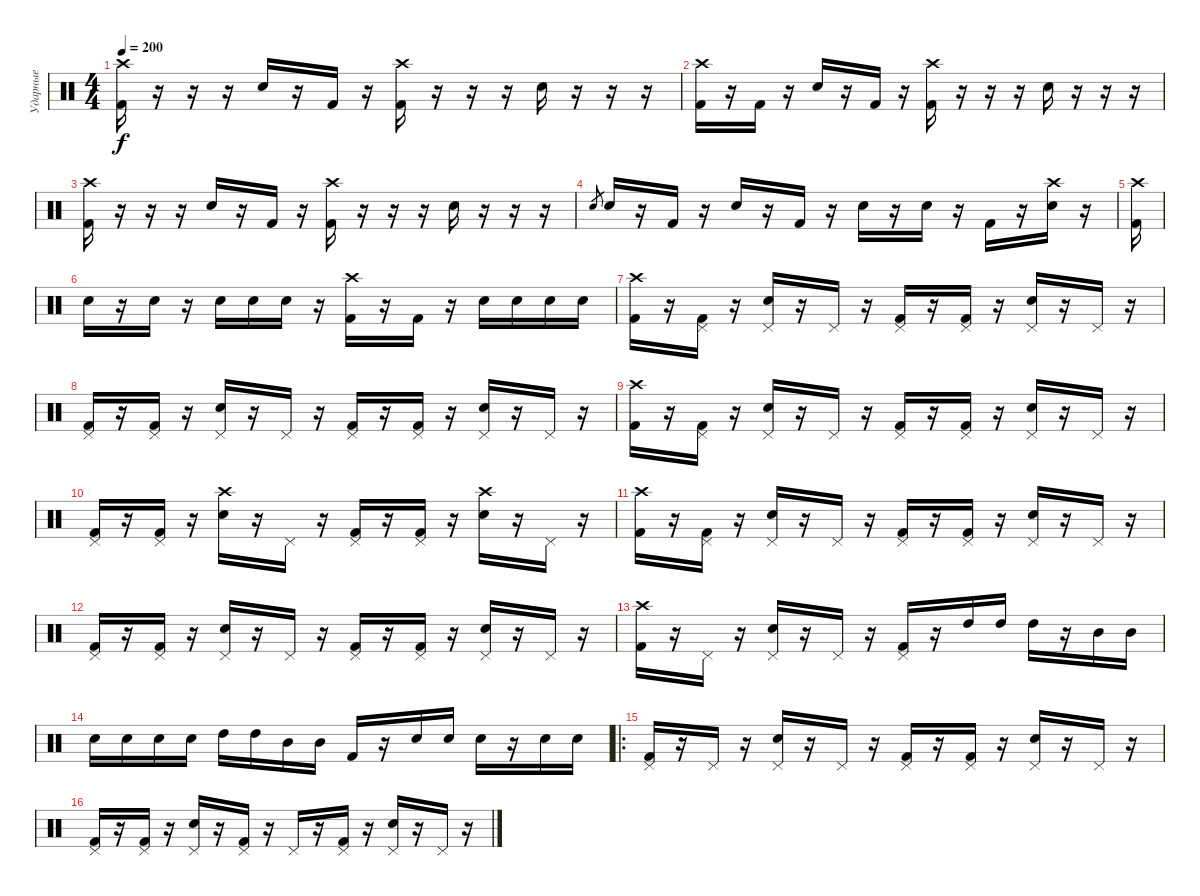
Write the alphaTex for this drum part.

\track ("Ударные" "Ударные") {solo instrument percussion}
\staff {score}
\articulation defaults
\ts (4 4)
\tempo 200
\clef neutral
\ks c
("Crash high (hit)" "Kick (hit) 2").16{dy f} r.16 r.16 r.16 "Electric Snare (hit)".16 r.16 "Kick (hit) 2".16 r.16 ("Crash high (hit)" "Kick (hit) 2").16 r.16 r.16 r.16 "Electric Snare (hit)".16 r.16 r.16 r.16 |
("Crash high (hit)" "Kick (hit) 2").16 r.16 "Kick (hit) 2".16 r.16 "Electric Snare (hit)".16 r.16 "Kick (hit) 2".16 r.16 ("Crash high (hit)" "Kick (hit) 2").16 r.16 r.16 r.16 "Electric Snare (hit)".16 r.16 r.16 r.16 |
("Crash high (hit)" "Kick (hit) 2").16 r.16 r.16 r.16 "Electric Snare (hit)".16 r.16 "Kick (hit) 2".16 r.16 ("Crash high (hit)" "Kick (hit) 2").16 r.16 r.16 r.16 "Electric Snare (hit)".16 r.16 r.16 r.16 |
"Electric Snare (hit)".8{gr} "Electric Snare (hit)".16 r.16 "Kick (hit) 2".16 r.16 "Electric Snare (hit)".16 r.16 "Kick (hit) 2".16 r.16 "Electric Snare (hit)".16 r.16 "Electric Snare (hit)".16 r.16 "Kick (hit) 2".16 r.16 ("Crash high (hit)" "Electric Snare (hit)").16 r.16 |
("Crash high (hit)" "Kick (hit) 2").16 |
"Electric Snare (hit)".16 r.16 "Electric Snare (hit)".16 r.16 "Electric Snare (hit)".16 "Electric Snare (hit)".16 "Electric Snare (hit)".16 r.16 ("Crash high (hit)" "Kick (hit) 2").16 r.16 "Kick (hit) 2".16 r.16 "Electric Snare (hit)".16 "Electric Snare (hit)".16 "Electric Snare (hit)".16 "Electric Snare (hit)".16 |
("Crash high (hit)" "Kick (hit) 2").16 r.16 ("Pedal Hi-Hat (hit)" "Kick (hit) 2").16 r.16 ("Pedal Hi-Hat (hit)" "Electric Snare (hit)").16 r.16 "Pedal Hi-Hat (hit)".16 r.16 ("Pedal Hi-Hat (hit)" "Kick (hit) 2").16 r.16 ("Pedal Hi-Hat (hit)" "Kick (hit) 2").16 r.16 ("Pedal Hi-Hat (hit)" "Electric Snare (hit)").16 r.16 "Pedal Hi-Hat (hit)".16 r.16 |
("Pedal Hi-Hat (hit)" "Kick (hit) 2").16 r.16 ("Pedal Hi-Hat (hit)" "Kick (hit) 2").16 r.16 ("Pedal Hi-Hat (hit)" "Electric Snare (hit)").16 r.16 "Pedal Hi-Hat (hit)".16 r.16 ("Pedal Hi-Hat (hit)" "Kick (hit) 2").16 r.16 ("Pedal Hi-Hat (hit)" "Kick (hit) 2").16 r.16 ("Pedal Hi-Hat (hit)" "Electric Snare (hit)").16 r.16 "Pedal Hi-Hat (hit)".16 r.16 |
("Crash high (hit)" "Kick (hit) 2").16 r.16 ("Pedal Hi-Hat (hit)" "Kick (hit) 2").16 r.16 ("Pedal Hi-Hat (hit)" "Electric Snare (hit)").16 r.16 "Pedal Hi-Hat (hit)".16 r.16 ("Pedal Hi-Hat (hit)" "Kick (hit) 2").16 r.16 ("Pedal Hi-Hat (hit)" "Kick (hit) 2").16 r.16 ("Pedal Hi-Hat (hit)" "Electric Snare (hit)").16 r.16 "Pedal Hi-Hat (hit)".16 r.16 |
("Pedal Hi-Hat (hit)" "Kick (hit) 2").16 r.16 ("Pedal Hi-Hat (hit)" "Kick (hit) 2").16 r.16 ("Crash high (hit)" "Electric Snare (hit)").16 r.16 "Pedal Hi-Hat (hit)".16 r.16 ("Pedal Hi-Hat (hit)" "Kick (hit) 2").16 r.16 ("Pedal Hi-Hat (hit)" "Kick (hit) 2").16 r.16 ("Crash high (hit)" "Electric Snare (hit)").16 r.16 "Pedal Hi-Hat (hit)".16 r.16 |
("Crash high (hit)" "Kick (hit) 2").16 r.16 ("Pedal Hi-Hat (hit)" "Kick (hit) 2").16 r.16 ("Pedal Hi-Hat (hit)" "Electric Snare (hit)").16 r.16 "Pedal Hi-Hat (hit)".16 r.16 ("Pedal Hi-Hat (hit)" "Kick (hit) 2").16 r.16 ("Pedal Hi-Hat (hit)" "Kick (hit) 2").16 r.16 ("Pedal Hi-Hat (hit)" "Electric Snare (hit)").16 r.16 "Pedal Hi-Hat (hit)".16 r.16 |
("Pedal Hi-Hat (hit)" "Kick (hit) 2").16 r.16 ("Pedal Hi-Hat (hit)" "Kick (hit) 2").16 r.16 ("Pedal Hi-Hat (hit)" "Electric Snare (hit)").16 r.16 "Pedal Hi-Hat (hit)".16 r.16 ("Pedal Hi-Hat (hit)" "Kick (hit) 2").16 r.16 ("Pedal Hi-Hat (hit)" "Kick (hit) 2").16 r.16 ("Pedal Hi-Hat (hit)" "Electric Snare (hit)").16 r.16 "Pedal Hi-Hat (hit)".16 r.16 |
("Crash high (hit)" "Kick (hit) 2").16 r.16 "Pedal Hi-Hat (hit)".16 r.16 ("Pedal Hi-Hat (hit)" "Electric Snare (hit)").16 r.16 "Pedal Hi-Hat (hit)".16 r.16 ("Pedal Hi-Hat (hit)" "Kick (hit) 2").16 r.16 "High Tom (hit)".16 "High Tom (hit)".16 "High Tom (hit)".16 r.16 "Mid Tom (hit)".16 "Mid Tom (hit)".16 |
"Electric Snare (hit)".16 "Electric Snare (hit)".16 "Electric Snare (hit)".16 "Electric Snare (hit)".16 "High Tom (hit)".16 "High Tom (hit)".16 "Mid Tom (hit)".16 "Mid Tom (hit)".16 "Kick (hit) 2".16 r.16 "Electric Snare (hit)".16 "Electric Snare (hit)".16 "Electric Snare (hit)".16 r.16 "Electric Snare (hit)".16 "Electric Snare (hit)".16 |
\ro
("Pedal Hi-Hat (hit)" "Kick (hit) 2").16 r.16 "Pedal Hi-Hat (hit)".16 r.16 ("Pedal Hi-Hat (hit)" "Electric Snare (hit)").16 r.16 "Pedal Hi-Hat (hit)".16 r.16 ("Pedal Hi-Hat (hit)" "Kick (hit) 2").16 r.16 ("Pedal Hi-Hat (hit)" "Kick (hit) 2").16 r.16 ("Pedal Hi-Hat (hit)" "Electric Snare (hit)").16 r.16 "Pedal Hi-Hat (hit)".16 r.16 |
("Pedal Hi-Hat (hit)" "Kick (hit) 2").16 r.16 ("Pedal Hi-Hat (hit)" "Kick (hit) 2").16 r.16 ("Pedal Hi-Hat (hit)" "Electric Snare (hit)").16 r.16 ("Pedal Hi-Hat (hit)" "Kick (hit) 2").16 r.16 "Pedal Hi-Hat (hit)".16 r.16 ("Pedal Hi-Hat (hit)" "Kick (hit) 2").16 r.16 ("Pedal Hi-Hat (hit)" "Electric Snare (hit)").16 r.16 "Pedal Hi-Hat (hit)".16 r.16
